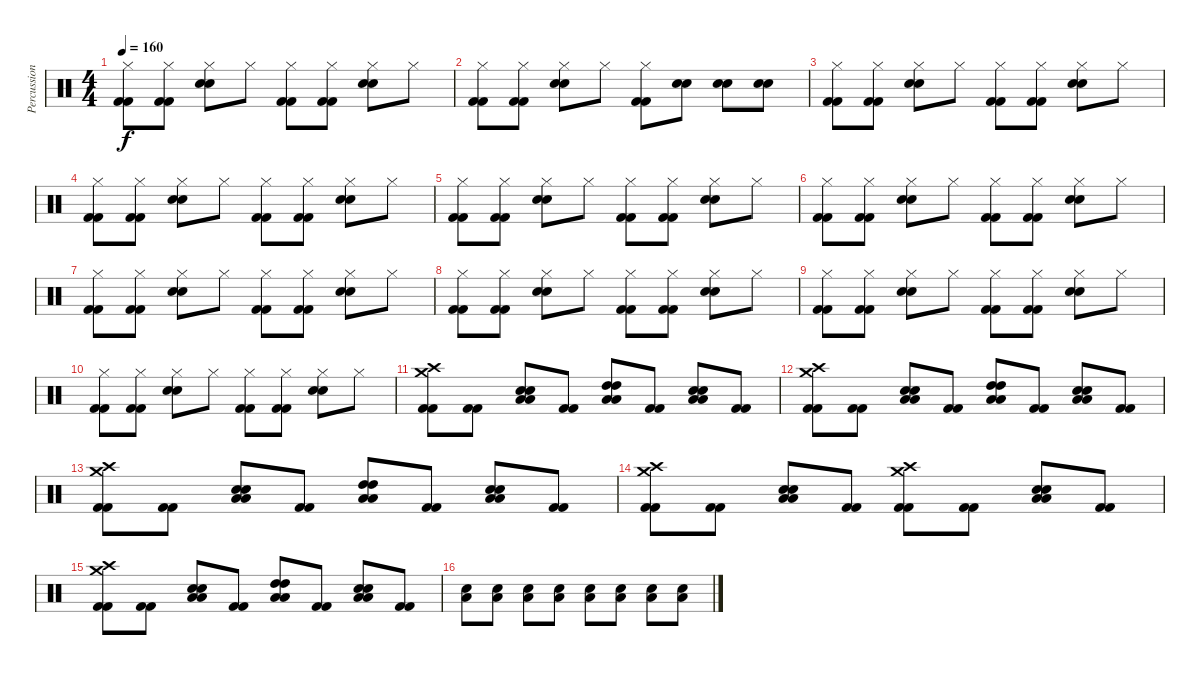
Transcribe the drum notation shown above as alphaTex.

\track ("Percussion" "Percussion") {instrument percussion}
\staff {score}
\articulation defaults
\ts (4 4)
\tempo 160
\clef neutral
\ks c
("Hi-Hat (closed)" "Kick (hit) 2" "Kick (hit) 2").8{dy f} ("Hi-Hat (closed)" "Kick (hit) 2" "Kick (hit) 2").8 ("Hi-Hat (closed)" "Snare (hit) 2" "Snare (hit) 2").8 "Hi-Hat (closed)".8 ("Hi-Hat (closed)" "Kick (hit) 2" "Kick (hit) 2").8 ("Hi-Hat (closed)" "Kick (hit) 2" "Kick (hit) 2").8 ("Hi-Hat (closed)" "Snare (hit) 2" "Snare (hit) 2").8 "Hi-Hat (closed)".8 |
("Hi-Hat (closed)" "Kick (hit) 2" "Kick (hit) 2").8 ("Hi-Hat (closed)" "Kick (hit) 2" "Kick (hit) 2").8 ("Hi-Hat (closed)" "Snare (hit) 2" "Snare (hit) 2").8 "Hi-Hat (closed)".8 ("Hi-Hat (closed)" "Kick (hit) 2" "Kick (hit) 2").8 ("Snare (hit) 2" "Snare (hit) 2").8 ("Snare (hit) 2" "Snare (hit) 2").8 ("Snare (hit) 2" "Snare (hit) 2").8 |
("Hi-Hat (closed)" "Kick (hit) 2" "Kick (hit) 2").8 ("Hi-Hat (closed)" "Kick (hit) 2" "Kick (hit) 2").8 ("Hi-Hat (closed)" "Snare (hit) 2" "Snare (hit) 2").8 "Hi-Hat (closed)".8 ("Hi-Hat (closed)" "Kick (hit) 2" "Kick (hit) 2").8 ("Hi-Hat (closed)" "Kick (hit) 2" "Kick (hit) 2").8 ("Hi-Hat (closed)" "Snare (hit) 2" "Snare (hit) 2").8 "Hi-Hat (closed)".8 |
("Hi-Hat (closed)" "Kick (hit) 2" "Kick (hit) 2").8 ("Hi-Hat (closed)" "Kick (hit) 2" "Kick (hit) 2").8 ("Hi-Hat (closed)" "Snare (hit) 2" "Snare (hit) 2").8 "Hi-Hat (closed)".8 ("Hi-Hat (closed)" "Kick (hit) 2" "Kick (hit) 2").8 ("Hi-Hat (closed)" "Kick (hit) 2" "Kick (hit) 2").8 ("Hi-Hat (closed)" "Snare (hit) 2" "Snare (hit) 2").8 "Hi-Hat (closed)".8 |
("Hi-Hat (closed)" "Kick (hit) 2" "Kick (hit) 2").8 ("Hi-Hat (closed)" "Kick (hit) 2" "Kick (hit) 2").8 ("Hi-Hat (closed)" "Snare (hit) 2" "Snare (hit) 2").8 "Hi-Hat (closed)".8 ("Hi-Hat (closed)" "Kick (hit) 2" "Kick (hit) 2").8 ("Hi-Hat (closed)" "Kick (hit) 2" "Kick (hit) 2").8 ("Hi-Hat (closed)" "Snare (hit) 2" "Snare (hit) 2").8 "Hi-Hat (closed)".8 |
("Hi-Hat (closed)" "Kick (hit) 2" "Kick (hit) 2").8 ("Hi-Hat (closed)" "Kick (hit) 2" "Kick (hit) 2").8 ("Hi-Hat (closed)" "Snare (hit) 2" "Snare (hit) 2").8 "Hi-Hat (closed)".8 ("Hi-Hat (closed)" "Kick (hit) 2" "Kick (hit) 2").8 ("Hi-Hat (closed)" "Kick (hit) 2" "Kick (hit) 2").8 ("Hi-Hat (closed)" "Snare (hit) 2" "Snare (hit) 2").8 "Hi-Hat (closed)".8 |
("Hi-Hat (closed)" "Kick (hit) 2" "Kick (hit) 2").8 ("Hi-Hat (closed)" "Kick (hit) 2" "Kick (hit) 2").8 ("Hi-Hat (closed)" "Snare (hit) 2" "Snare (hit) 2").8 "Hi-Hat (closed)".8 ("Hi-Hat (closed)" "Kick (hit) 2" "Kick (hit) 2").8 ("Hi-Hat (closed)" "Kick (hit) 2" "Kick (hit) 2").8 ("Hi-Hat (closed)" "Snare (hit) 2" "Snare (hit) 2").8 "Hi-Hat (closed)".8 |
("Hi-Hat (closed)" "Kick (hit) 2" "Kick (hit) 2").8 ("Hi-Hat (closed)" "Kick (hit) 2" "Kick (hit) 2").8 ("Hi-Hat (closed)" "Snare (hit) 2" "Snare (hit) 2").8 "Hi-Hat (closed)".8 ("Hi-Hat (closed)" "Kick (hit) 2" "Kick (hit) 2").8 ("Hi-Hat (closed)" "Kick (hit) 2" "Kick (hit) 2").8 ("Hi-Hat (closed)" "Snare (hit) 2" "Snare (hit) 2").8 "Hi-Hat (closed)".8 |
("Hi-Hat (closed)" "Kick (hit) 2" "Kick (hit) 2").8 ("Hi-Hat (closed)" "Kick (hit) 2" "Kick (hit) 2").8 ("Hi-Hat (closed)" "Snare (hit) 2" "Snare (hit) 2").8 "Hi-Hat (closed)".8 ("Hi-Hat (closed)" "Kick (hit) 2" "Kick (hit) 2").8 ("Hi-Hat (closed)" "Kick (hit) 2" "Kick (hit) 2").8 ("Hi-Hat (closed)" "Snare (hit) 2" "Snare (hit) 2").8 "Hi-Hat (closed)".8 |
("Hi-Hat (closed)" "Kick (hit) 2" "Kick (hit) 2").8 ("Hi-Hat (closed)" "Kick (hit) 2" "Kick (hit) 2").8 ("Hi-Hat (closed)" "Snare (hit) 2" "Snare (hit) 2").8 "Hi-Hat (closed)".8 ("Hi-Hat (closed)" "Kick (hit) 2" "Kick (hit) 2").8 ("Hi-Hat (closed)" "Kick (hit) 2" "Kick (hit) 2").8 ("Hi-Hat (closed)" "Snare (hit) 2" "Snare (hit) 2").8 "Hi-Hat (closed)".8 |
("Crash high (hit)" "Crash medium (hit)" "Kick (hit) 2" "Kick (hit) 2").8 ("Kick (hit) 2" "Kick (hit) 2").8 ("Low Floor Tom (hit)" "Low Floor Tom (hit)" "Snare (hit) 2" "Snare (hit) 2").8 ("Kick (hit) 2" "Kick (hit) 2").8 ("Low Floor Tom (hit)" "Low Floor Tom (hit)" "High Tom (hit)" "High Tom (hit)").8 ("Kick (hit) 2" "Kick (hit) 2").8 ("Low Floor Tom (hit)" "Low Floor Tom (hit)" "Snare (hit) 2" "Snare (hit) 2").8 ("Kick (hit) 2" "Kick (hit) 2").8 |
("Crash high (hit)" "Crash medium (hit)" "Kick (hit) 2" "Kick (hit) 2").8 ("Kick (hit) 2" "Kick (hit) 2").8 ("Low Floor Tom (hit)" "Low Floor Tom (hit)" "Snare (hit) 2" "Snare (hit) 2").8 ("Kick (hit) 2" "Kick (hit) 2").8 ("Low Floor Tom (hit)" "Low Floor Tom (hit)" "High Tom (hit)" "High Tom (hit)").8 ("Kick (hit) 2" "Kick (hit) 2").8 ("Low Floor Tom (hit)" "Low Floor Tom (hit)" "Snare (hit) 2" "Snare (hit) 2").8 ("Kick (hit) 2" "Kick (hit) 2").8 |
("Crash high (hit)" "Crash medium (hit)" "Kick (hit) 2" "Kick (hit) 2").8 ("Kick (hit) 2" "Kick (hit) 2").8 ("Low Floor Tom (hit)" "Low Floor Tom (hit)" "Snare (hit) 2" "Snare (hit) 2").8 ("Kick (hit) 2" "Kick (hit) 2").8 ("Low Floor Tom (hit)" "Low Floor Tom (hit)" "High Tom (hit)" "High Tom (hit)").8 ("Kick (hit) 2" "Kick (hit) 2").8 ("Low Floor Tom (hit)" "Low Floor Tom (hit)" "Snare (hit) 2" "Snare (hit) 2").8 ("Kick (hit) 2" "Kick (hit) 2").8 |
("Crash high (hit)" "Crash medium (hit)" "Kick (hit) 2" "Kick (hit) 2").8 ("Kick (hit) 2" "Kick (hit) 2").8 ("Low Floor Tom (hit)" "Low Floor Tom (hit)" "Snare (hit) 2" "Snare (hit) 2").8 ("Kick (hit) 2" "Kick (hit) 2").8 ("Crash medium (hit)" "Crash high (hit)" "Kick (hit) 2" "Kick (hit) 2").8 ("Kick (hit) 2" "Kick (hit) 2").8 ("Low Floor Tom (hit)" "Low Floor Tom (hit)" "Snare (hit) 2" "Snare (hit) 2").8 ("Kick (hit) 2" "Kick (hit) 2").8 |
("Crash high (hit)" "Crash medium (hit)" "Kick (hit) 2" "Kick (hit) 2").8 ("Kick (hit) 2" "Kick (hit) 2").8 ("Low Floor Tom (hit)" "Low Floor Tom (hit)" "Snare (hit) 2" "Snare (hit) 2").8 ("Kick (hit) 2" "Kick (hit) 2").8 ("Low Floor Tom (hit)" "Low Floor Tom (hit)" "High Tom (hit)" "High Tom (hit)").8 ("Kick (hit) 2" "Kick (hit) 2").8 ("Low Floor Tom (hit)" "Low Floor Tom (hit)" "Snare (hit) 2" "Snare (hit) 2").8 ("Kick (hit) 2" "Kick (hit) 2").8 |
("Low Floor Tom (hit)" "Snare (hit) 2").8 ("Low Floor Tom (hit)" "Snare (hit) 2").8 ("Low Floor Tom (hit)" "Snare (hit) 2").8 ("Low Floor Tom (hit)" "Snare (hit) 2").8 ("Low Floor Tom (hit)" "Snare (hit) 2").8 ("Low Floor Tom (hit)" "Snare (hit) 2").8 ("Low Floor Tom (hit)" "Snare (hit) 2").8 ("Low Floor Tom (hit)" "Snare (hit) 2").8
